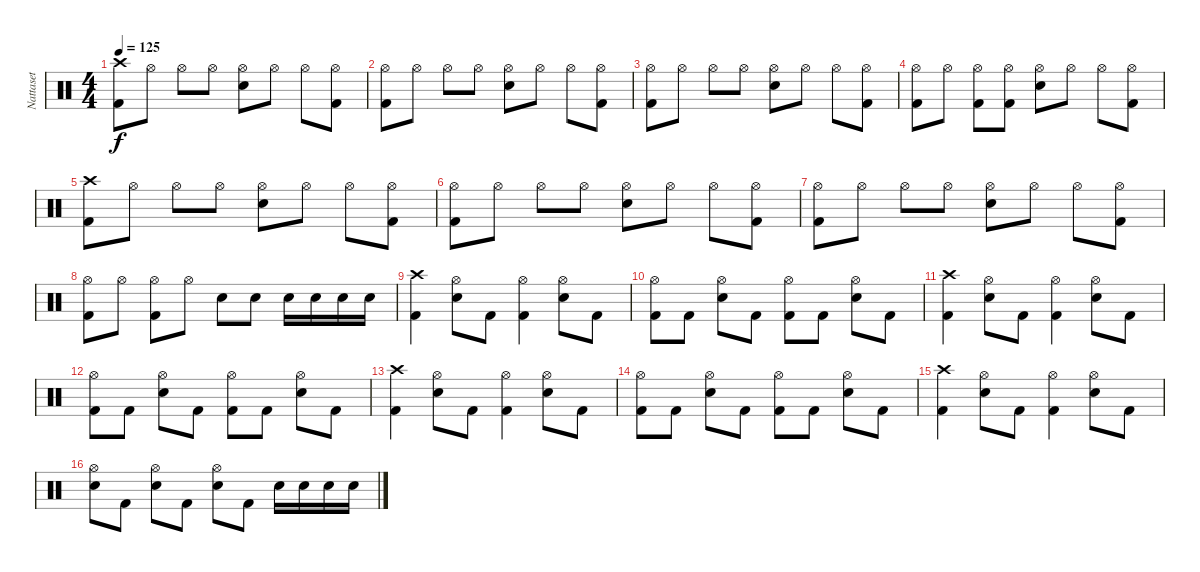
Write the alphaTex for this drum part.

\track ("Nattaset" "Nattaset") {instrument percussion}
\staff {score}
\articulation defaults
\ts (4 4)
\tempo 125
\clef neutral
\ks c
("Kick (hit) 2" "Crash high (hit)").8{dy f} "Hi-Hat (open)".8 "Hi-Hat (open)".8 "Hi-Hat (open)".8 ("Snare (hit) 2" "Hi-Hat (open)").8 "Hi-Hat (open)".8 "Hi-Hat (open)".8 ("Kick (hit) 2" "Hi-Hat (open)").8 |
("Kick (hit) 2" "Hi-Hat (open)").8 "Hi-Hat (open)".8 "Hi-Hat (open)".8 "Hi-Hat (open)".8 ("Snare (hit) 2" "Hi-Hat (open)").8 "Hi-Hat (open)".8 "Hi-Hat (open)".8 ("Kick (hit) 2" "Hi-Hat (open)").8 |
("Kick (hit) 2" "Hi-Hat (open)").8 "Hi-Hat (open)".8 "Hi-Hat (open)".8 "Hi-Hat (open)".8 ("Snare (hit) 2" "Hi-Hat (open)").8 "Hi-Hat (open)".8 "Hi-Hat (open)".8 ("Kick (hit) 2" "Hi-Hat (open)").8 |
("Kick (hit) 2" "Hi-Hat (open)").8 "Hi-Hat (open)".8 ("Kick (hit) 2" "Hi-Hat (open)").8 ("Kick (hit) 2" "Hi-Hat (open)").8 ("Snare (hit) 2" "Hi-Hat (open)").8 "Hi-Hat (open)".8 "Hi-Hat (open)".8 ("Kick (hit) 2" "Hi-Hat (open)").8 |
("Kick (hit) 2" "Crash high (hit)").8 "Hi-Hat (open)".8 "Hi-Hat (open)".8 "Hi-Hat (open)".8 ("Snare (hit) 2" "Hi-Hat (open)").8 "Hi-Hat (open)".8 "Hi-Hat (open)".8 ("Kick (hit) 2" "Hi-Hat (open)").8 |
("Kick (hit) 2" "Hi-Hat (open)").8 "Hi-Hat (open)".8 "Hi-Hat (open)".8 "Hi-Hat (open)".8 ("Snare (hit) 2" "Hi-Hat (open)").8 "Hi-Hat (open)".8 "Hi-Hat (open)".8 ("Kick (hit) 2" "Hi-Hat (open)").8 |
("Kick (hit) 2" "Hi-Hat (open)").8 "Hi-Hat (open)".8 "Hi-Hat (open)".8 "Hi-Hat (open)".8 ("Snare (hit) 2" "Hi-Hat (open)").8 "Hi-Hat (open)".8 "Hi-Hat (open)".8 ("Kick (hit) 2" "Hi-Hat (open)").8 |
("Kick (hit) 2" "Hi-Hat (open)").8 "Hi-Hat (open)".8 ("Kick (hit) 2" "Hi-Hat (open)").8 "Hi-Hat (open)".8 "Snare (hit) 2".8 "Snare (hit) 2".8 "Snare (hit) 2".16 "Snare (hit) 2".16 "Snare (hit) 2".16 "Snare (hit) 2".16 |
("Kick (hit) 2" "Crash high (hit)").4 ("Snare (hit) 2" "Hi-Hat (open)").8 "Kick (hit) 2".8 ("Kick (hit) 2" "Hi-Hat (open)").4 ("Snare (hit) 2" "Hi-Hat (open)").8 "Kick (hit) 2".8 |
("Kick (hit) 2" "Hi-Hat (open)").8 "Kick (hit) 2".8 ("Snare (hit) 2" "Hi-Hat (open)").8 "Kick (hit) 2".8 ("Kick (hit) 2" "Hi-Hat (open)").8 "Kick (hit) 2".8 ("Snare (hit) 2" "Hi-Hat (open)").8 "Kick (hit) 2".8 |
("Kick (hit) 2" "Crash high (hit)").4 ("Snare (hit) 2" "Hi-Hat (open)").8 "Kick (hit) 2".8 ("Kick (hit) 2" "Hi-Hat (open)").4 ("Snare (hit) 2" "Hi-Hat (open)").8 "Kick (hit) 2".8 |
("Kick (hit) 2" "Hi-Hat (open)").8 "Kick (hit) 2".8 ("Snare (hit) 2" "Hi-Hat (open)").8 "Kick (hit) 2".8 ("Kick (hit) 2" "Hi-Hat (open)").8 "Kick (hit) 2".8 ("Snare (hit) 2" "Hi-Hat (open)").8 "Kick (hit) 2".8 |
("Kick (hit) 2" "Crash high (hit)").4 ("Snare (hit) 2" "Hi-Hat (open)").8 "Kick (hit) 2".8 ("Kick (hit) 2" "Hi-Hat (open)").4 ("Snare (hit) 2" "Hi-Hat (open)").8 "Kick (hit) 2".8 |
("Kick (hit) 2" "Hi-Hat (open)").8 "Kick (hit) 2".8 ("Snare (hit) 2" "Hi-Hat (open)").8 "Kick (hit) 2".8 ("Kick (hit) 2" "Hi-Hat (open)").8 "Kick (hit) 2".8 ("Snare (hit) 2" "Hi-Hat (open)").8 "Kick (hit) 2".8 |
("Kick (hit) 2" "Crash high (hit)").4 ("Snare (hit) 2" "Hi-Hat (open)").8 "Kick (hit) 2".8 ("Kick (hit) 2" "Hi-Hat (open)").4 ("Snare (hit) 2" "Hi-Hat (open)").8 "Kick (hit) 2".8 |
("Snare (hit) 2" "Hi-Hat (open)").8 "Kick (hit) 2".8 ("Snare (hit) 2" "Hi-Hat (open)").8 "Kick (hit) 2".8 ("Snare (hit) 2" "Hi-Hat (open)").8 "Kick (hit) 2".8 "Snare (hit) 2".16 "Snare (hit) 2".16 "Snare (hit) 2".16 "Snare (hit) 2".16
